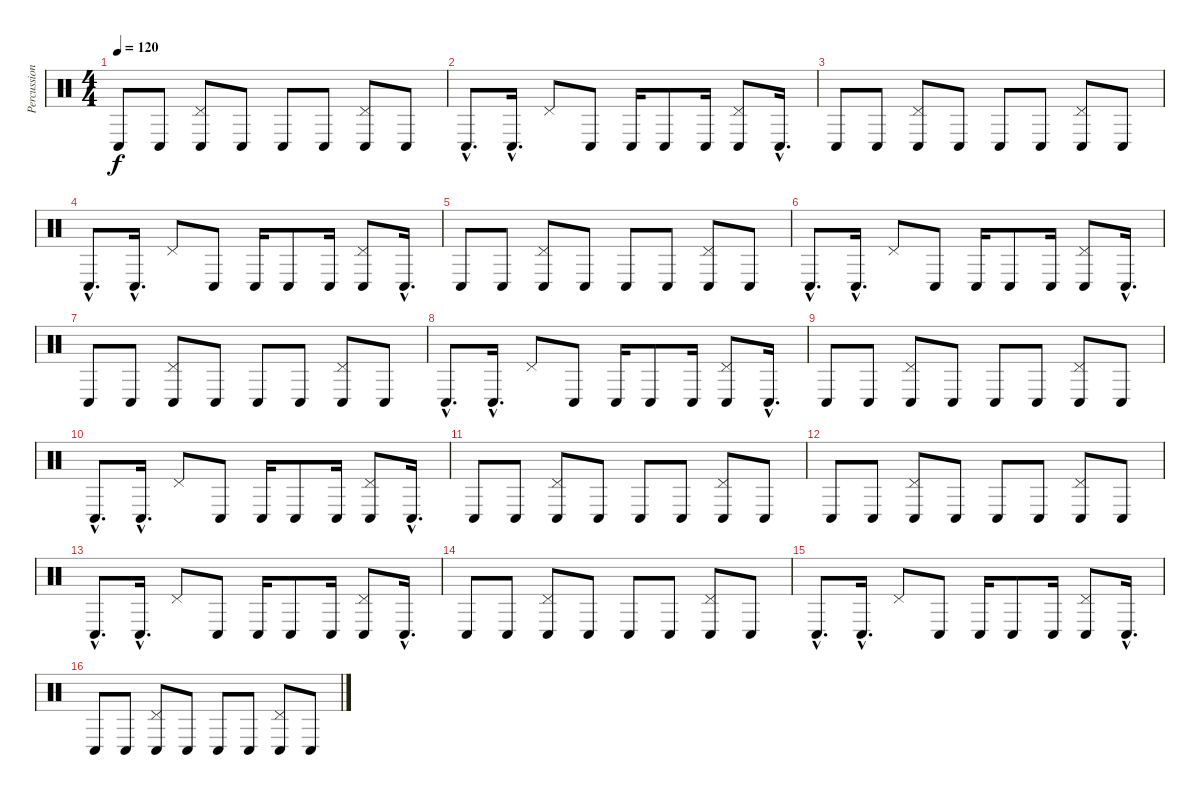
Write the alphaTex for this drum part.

\track ("Percussion" "Percussion") {instrument percussion}
\staff {score}
\articulation defaults
\ts (4 4)
\tempo 120
\clef neutral
\ks c "Conga low (hit)".8{dy f} "Conga low (hit)".8
("Pedal Hi-Hat (hit)" "Conga low (hit)").8 "Conga low (hit)".8 "Conga low (hit)".8 "Conga low (hit)".8 ("Pedal Hi-Hat (hit)" "Conga low (hit)").8 "Conga low (hit)".8 |
"Conga low (hit)"{hac}.8{d} "Conga low (hit)"{hac}.16{d} "Pedal Hi-Hat (hit)".8 "Conga low (hit)".8 "Conga low (hit)".16 "Conga low (hit)".8 "Conga low (hit)".16 ("Pedal Hi-Hat (hit)" "Conga low (hit)").8 "Conga low (hit)"{hac}.16{d} |
"Conga low (hit)".8 "Conga low (hit)".8 ("Pedal Hi-Hat (hit)" "Conga low (hit)").8 "Conga low (hit)".8 "Conga low (hit)".8 "Conga low (hit)".8 ("Pedal Hi-Hat (hit)" "Conga low (hit)").8 "Conga low (hit)".8 |
"Conga low (hit)"{hac}.8{d} "Conga low (hit)"{hac}.16{d} "Pedal Hi-Hat (hit)".8 "Conga low (hit)".8 "Conga low (hit)".16 "Conga low (hit)".8 "Conga low (hit)".16 ("Pedal Hi-Hat (hit)" "Conga low (hit)").8 "Conga low (hit)"{hac}.16{d} |
"Conga low (hit)".8 "Conga low (hit)".8 ("Pedal Hi-Hat (hit)" "Conga low (hit)").8 "Conga low (hit)".8 "Conga low (hit)".8 "Conga low (hit)".8 ("Pedal Hi-Hat (hit)" "Conga low (hit)").8 "Conga low (hit)".8 |
"Conga low (hit)"{hac}.8{d} "Conga low (hit)"{hac}.16{d} "Pedal Hi-Hat (hit)".8 "Conga low (hit)".8 "Conga low (hit)".16 "Conga low (hit)".8 "Conga low (hit)".16 ("Pedal Hi-Hat (hit)" "Conga low (hit)").8 "Conga low (hit)"{hac}.16{d} |
"Conga low (hit)".8 "Conga low (hit)".8 ("Pedal Hi-Hat (hit)" "Conga low (hit)").8 "Conga low (hit)".8 "Conga low (hit)".8 "Conga low (hit)".8 ("Pedal Hi-Hat (hit)" "Conga low (hit)").8 "Conga low (hit)".8 |
"Conga low (hit)"{hac}.8{d} "Conga low (hit)"{hac}.16{d} "Pedal Hi-Hat (hit)".8 "Conga low (hit)".8 "Conga low (hit)".16 "Conga low (hit)".8 "Conga low (hit)".16 ("Pedal Hi-Hat (hit)" "Conga low (hit)").8 "Conga low (hit)"{hac}.16{d} |
"Conga low (hit)".8 "Conga low (hit)".8 ("Pedal Hi-Hat (hit)" "Conga low (hit)").8 "Conga low (hit)".8 "Conga low (hit)".8 "Conga low (hit)".8 ("Pedal Hi-Hat (hit)" "Conga low (hit)").8 "Conga low (hit)".8 |
"Conga low (hit)"{hac}.8{d} "Conga low (hit)"{hac}.16{d} "Pedal Hi-Hat (hit)".8 "Conga low (hit)".8 "Conga low (hit)".16 "Conga low (hit)".8 "Conga low (hit)".16 ("Pedal Hi-Hat (hit)" "Conga low (hit)").8 "Conga low (hit)"{hac}.16{d} |
"Conga low (hit)".8 "Conga low (hit)".8 ("Pedal Hi-Hat (hit)" "Conga low (hit)").8 "Conga low (hit)".8 "Conga low (hit)".8 "Conga low (hit)".8 ("Pedal Hi-Hat (hit)" "Conga low (hit)").8 "Conga low (hit)".8 |
"Conga low (hit)".8 "Conga low (hit)".8 ("Pedal Hi-Hat (hit)" "Conga low (hit)").8 "Conga low (hit)".8 "Conga low (hit)".8 "Conga low (hit)".8 ("Pedal Hi-Hat (hit)" "Conga low (hit)").8 "Conga low (hit)".8 |
"Conga low (hit)"{hac}.8{d} "Conga low (hit)"{hac}.16{d} "Pedal Hi-Hat (hit)".8 "Conga low (hit)".8 "Conga low (hit)".16 "Conga low (hit)".8 "Conga low (hit)".16 ("Pedal Hi-Hat (hit)" "Conga low (hit)").8 "Conga low (hit)"{hac}.16{d} |
"Conga low (hit)".8 "Conga low (hit)".8 ("Pedal Hi-Hat (hit)" "Conga low (hit)").8 "Conga low (hit)".8 "Conga low (hit)".8 "Conga low (hit)".8 ("Pedal Hi-Hat (hit)" "Conga low (hit)").8 "Conga low (hit)".8 |
"Conga low (hit)"{hac}.8{d} "Conga low (hit)"{hac}.16{d} "Pedal Hi-Hat (hit)".8 "Conga low (hit)".8 "Conga low (hit)".16 "Conga low (hit)".8 "Conga low (hit)".16 ("Pedal Hi-Hat (hit)" "Conga low (hit)").8 "Conga low (hit)"{hac}.16{d} |
"Conga low (hit)".8 "Conga low (hit)".8 ("Pedal Hi-Hat (hit)" "Conga low (hit)").8 "Conga low (hit)".8 "Conga low (hit)".8 "Conga low (hit)".8 ("Pedal Hi-Hat (hit)" "Conga low (hit)").8 "Conga low (hit)".8
